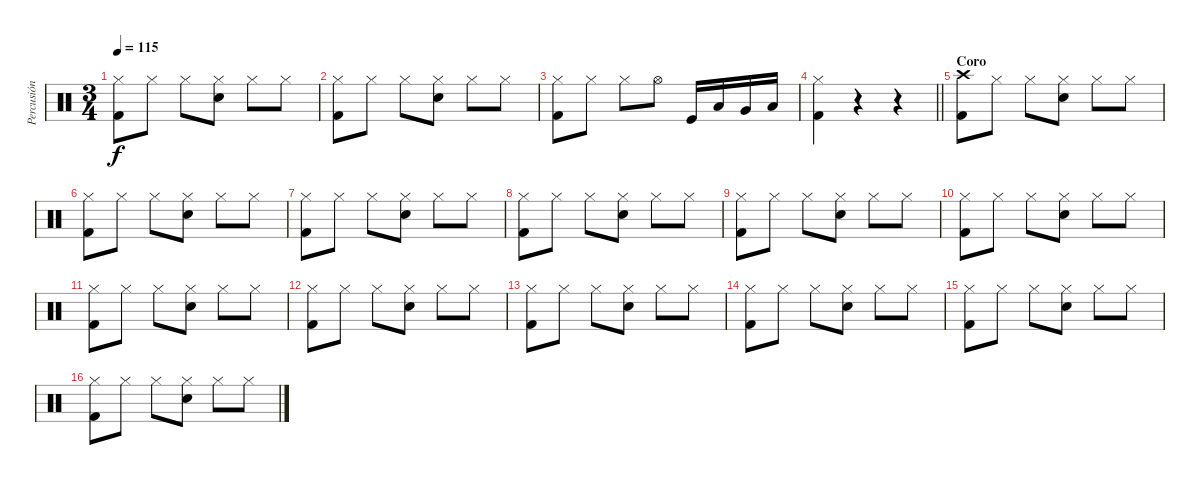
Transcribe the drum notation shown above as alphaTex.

\track ("Percusión" "Percusión") {instrument percussion}
\staff {score}
\articulation defaults
\ts (3 4)
\tempo 115
\clef neutral
\ks c
("Hi-Hat (closed)" "Kick (hit) 2").8{dy f} "Hi-Hat (closed)".8 "Hi-Hat (closed)".8 ("Hi-Hat (closed)" "Electric Snare (hit)").8 "Hi-Hat (closed)".8 "Hi-Hat (closed)".8 |
("Hi-Hat (closed)" "Kick (hit) 2").8 "Hi-Hat (closed)".8 "Hi-Hat (closed)".8 ("Hi-Hat (closed)" "Electric Snare (hit)").8 "Hi-Hat (closed)".8 "Hi-Hat (closed)".8 |
("Hi-Hat (closed)" "Kick (hit) 2").8 "Hi-Hat (closed)".8 "Hi-Hat (closed)".8 "Hi-Hat (open)".8 "Kick (hit)".16 "Low Floor Tom (hit)".16 "Very Low Tom (hit)".16 "Low Tom (hit)".16 |
\barLineRight lightlight
("Hi-Hat (closed)" "Kick (hit) 2").4 r.4 r.4 |
\section ("" "Coro")
("Crash high (hit)" "Kick (hit) 2").8 "Hi-Hat (closed)".8 "Hi-Hat (closed)".8 ("Hi-Hat (closed)" "Electric Snare (hit)").8 "Hi-Hat (closed)".8 "Hi-Hat (closed)".8 |
("Hi-Hat (closed)" "Kick (hit) 2").8 "Hi-Hat (closed)".8 "Hi-Hat (closed)".8 ("Hi-Hat (closed)" "Electric Snare (hit)").8 "Hi-Hat (closed)".8 "Hi-Hat (closed)".8 |
("Hi-Hat (closed)" "Kick (hit) 2").8 "Hi-Hat (closed)".8 "Hi-Hat (closed)".8 ("Hi-Hat (closed)" "Electric Snare (hit)").8 "Hi-Hat (closed)".8 "Hi-Hat (closed)".8 |
("Hi-Hat (closed)" "Kick (hit) 2").8 "Hi-Hat (closed)".8 "Hi-Hat (closed)".8 ("Hi-Hat (closed)" "Electric Snare (hit)").8 "Hi-Hat (closed)".8 "Hi-Hat (closed)".8 |
("Hi-Hat (closed)" "Kick (hit) 2").8 "Hi-Hat (closed)".8 "Hi-Hat (closed)".8 ("Hi-Hat (closed)" "Electric Snare (hit)").8 "Hi-Hat (closed)".8 "Hi-Hat (closed)".8 |
("Hi-Hat (closed)" "Kick (hit) 2").8 "Hi-Hat (closed)".8 "Hi-Hat (closed)".8 ("Hi-Hat (closed)" "Electric Snare (hit)").8 "Hi-Hat (closed)".8 "Hi-Hat (closed)".8 |
("Hi-Hat (closed)" "Kick (hit) 2").8 "Hi-Hat (closed)".8 "Hi-Hat (closed)".8 ("Hi-Hat (closed)" "Electric Snare (hit)").8 "Hi-Hat (closed)".8 "Hi-Hat (closed)".8 |
("Hi-Hat (closed)" "Kick (hit) 2").8 "Hi-Hat (closed)".8 "Hi-Hat (closed)".8 ("Hi-Hat (closed)" "Electric Snare (hit)").8 "Hi-Hat (closed)".8 "Hi-Hat (closed)".8 |
("Hi-Hat (closed)" "Kick (hit) 2").8 "Hi-Hat (closed)".8 "Hi-Hat (closed)".8 ("Hi-Hat (closed)" "Electric Snare (hit)").8 "Hi-Hat (closed)".8 "Hi-Hat (closed)".8 |
("Hi-Hat (closed)" "Kick (hit) 2").8 "Hi-Hat (closed)".8 "Hi-Hat (closed)".8 ("Hi-Hat (closed)" "Electric Snare (hit)").8 "Hi-Hat (closed)".8 "Hi-Hat (closed)".8 |
("Hi-Hat (closed)" "Kick (hit) 2").8 "Hi-Hat (closed)".8 "Hi-Hat (closed)".8 ("Hi-Hat (closed)" "Electric Snare (hit)").8 "Hi-Hat (closed)".8 "Hi-Hat (closed)".8 |
("Hi-Hat (closed)" "Kick (hit) 2").8 "Hi-Hat (closed)".8 "Hi-Hat (closed)".8 ("Hi-Hat (closed)" "Electric Snare (hit)").8 "Hi-Hat (closed)".8 "Hi-Hat (closed)".8
